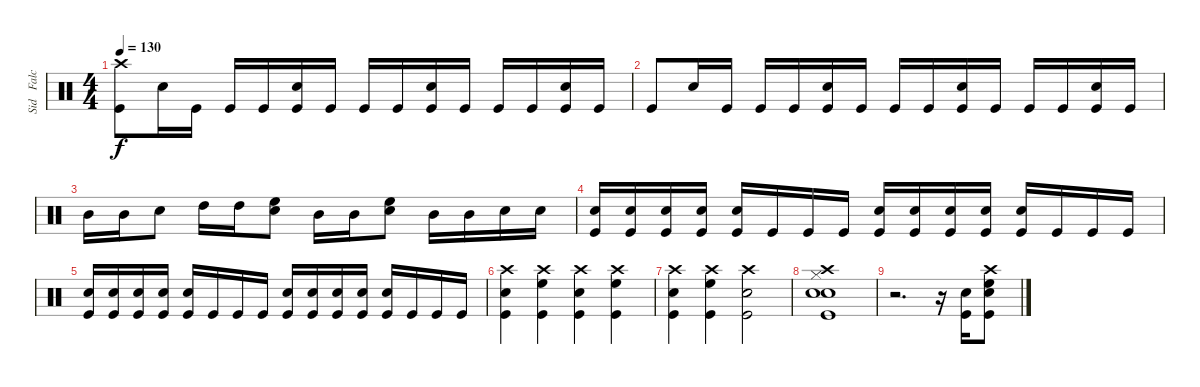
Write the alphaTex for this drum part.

\track ("Sid   Falck  - Drums" "Sid   Falc") {instrument percussion}
\staff {score}
\articulation defaults
\ts (4 4)
\tempo 130
\clef neutral
\ks c
("Crash high (hit)" "Kick (hit)").8{dy f} "Electric Snare (hit)".16 "Kick (hit)".16 "Kick (hit)".16 "Kick (hit)".16 ("Electric Snare (hit)" "Kick (hit)").16 "Kick (hit)".16 "Kick (hit)".16 "Kick (hit)".16 ("Electric Snare (hit)" "Kick (hit)").16 "Kick (hit)".16 "Kick (hit)".16 "Kick (hit)".16 ("Electric Snare (hit)" "Kick (hit)").16 "Kick (hit)".16 |
"Kick (hit)".8 "Electric Snare (hit)".16 "Kick (hit)".16 "Kick (hit)".16 "Kick (hit)".16 ("Electric Snare (hit)" "Kick (hit)").16 "Kick (hit)".16 "Kick (hit)".16 "Kick (hit)".16 ("Electric Snare (hit)" "Kick (hit)").16 "Kick (hit)".16 "Kick (hit)".16 "Kick (hit)".16 ("Electric Snare (hit)" "Kick (hit)").16 "Kick (hit)".16 |
"Mid Tom (hit)".16 "Mid Tom (hit)".16 "Electric Snare (hit)".8 "High Tom (hit)".16 "High Tom (hit)".16 ("High Floor Tom (hit)" "Electric Snare (hit)").8 "Mid Tom (hit)".16 "Mid Tom (hit)".16 ("High Floor Tom (hit)" "Electric Snare (hit)").8 "Mid Tom (hit)".16 "Mid Tom (hit)".16 "Electric Snare (hit)".16 "Electric Snare (hit)".16 |
("Electric Snare (hit)" "Kick (hit)").16 ("Electric Snare (hit)" "Kick (hit)").16 ("Electric Snare (hit)" "Kick (hit)").16 ("Electric Snare (hit)" "Kick (hit)").16 ("Electric Snare (hit)" "Kick (hit)").16 "Kick (hit)".16 "Kick (hit)".16 "Kick (hit)".16 ("Electric Snare (hit)" "Kick (hit)").16 ("Electric Snare (hit)" "Kick (hit)").16 ("Electric Snare (hit)" "Kick (hit)").16 ("Electric Snare (hit)" "Kick (hit)").16 ("Electric Snare (hit)" "Kick (hit)").16 "Kick (hit)".16 "Kick (hit)".16 "Kick (hit)".16 |
("Electric Snare (hit)" "Kick (hit)").16 ("Electric Snare (hit)" "Kick (hit)").16 ("Electric Snare (hit)" "Kick (hit)").16 ("Electric Snare (hit)" "Kick (hit)").16 ("Electric Snare (hit)" "Kick (hit)").16 "Kick (hit)".16 "Kick (hit)".16 "Kick (hit)".16 ("Electric Snare (hit)" "Kick (hit)").16 ("Electric Snare (hit)" "Kick (hit)").16 ("Electric Snare (hit)" "Kick (hit)").16 ("Electric Snare (hit)" "Kick (hit)").16 ("Electric Snare (hit)" "Kick (hit)").16 "Kick (hit)".16 "Kick (hit)".16 "Kick (hit)".16 |
("Crash high (hit)" "Electric Snare (hit)" "Kick (hit)").4 ("Crash high (hit)" "High Floor Tom (hit)" "Kick (hit)").4 ("Crash high (hit)" "Electric Snare (hit)" "Kick (hit)").4 ("Crash high (hit)" "High Floor Tom (hit)" "Kick (hit)").4 |
("Crash high (hit)" "Electric Snare (hit)" "Kick (hit)").4 ("Crash high (hit)" "High Floor Tom (hit)" "Kick (hit)").4 ("Crash high (hit)" "Electric Snare (hit)" "Kick (hit)").2 |
("Hi-Hat (closed)" "Snare (hit) 2" "Crash high (hit)" "Electric Snare (hit)" "Kick (hit)").1 |
r.2{d} r.16 ("Electric Snare (hit)" "Kick (hit)").16 ("Crash high (hit)" "Electric Snare (hit)" "High Floor Tom (hit)" "Kick (hit)").8
